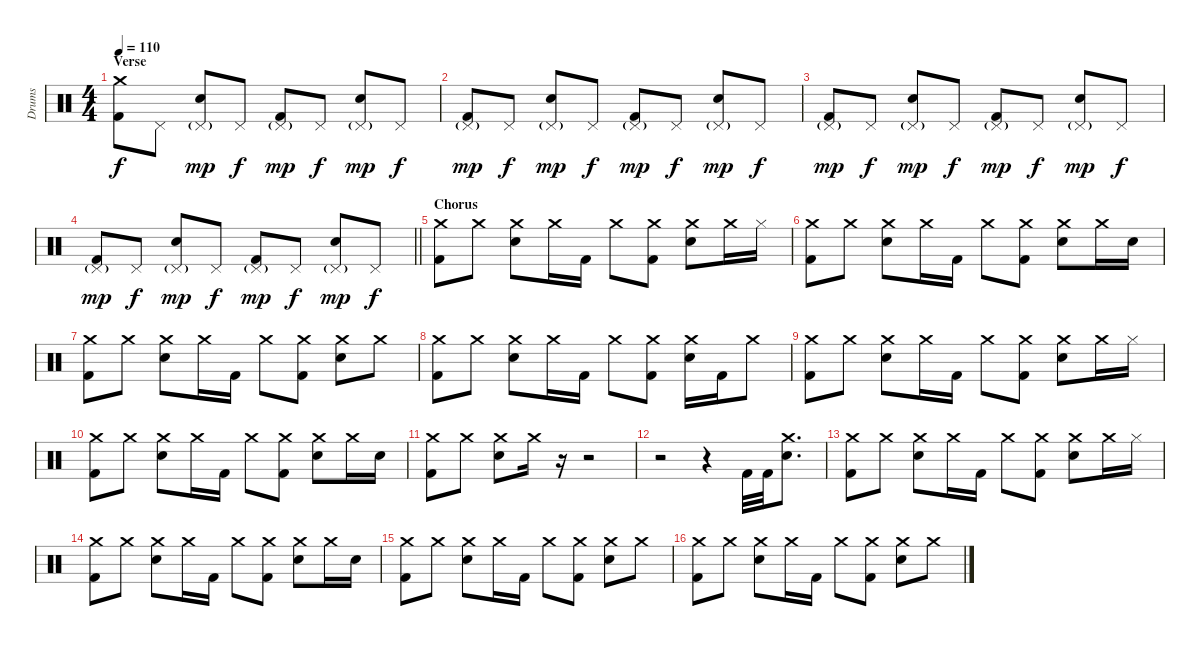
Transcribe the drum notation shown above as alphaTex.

\track ("Drums" "Drums") {instrument percussion}
\staff {score}
\articulation defaults
\ts (4 4)
\section ("" "Verse")
\tempo 110
\clef neutral
\ks c
("Crash medium (hit)" "Kick (hit) 2").8{dy f} "Pedal Hi-Hat (hit)".8 ("Pedal Hi-Hat (hit)"{g} "Electric Snare (hit)").8{dy mp} "Pedal Hi-Hat (hit)".8{dy f} ("Pedal Hi-Hat (hit)"{g} "Kick (hit) 2").8{dy mp} "Pedal Hi-Hat (hit)".8{dy f} ("Pedal Hi-Hat (hit)"{g} "Electric Snare (hit)").8{dy mp} "Pedal Hi-Hat (hit)".8{dy f} |
("Pedal Hi-Hat (hit)"{g} "Kick (hit) 2").8{dy mp} "Pedal Hi-Hat (hit)".8{dy f} ("Pedal Hi-Hat (hit)"{g} "Electric Snare (hit)").8{dy mp} "Pedal Hi-Hat (hit)".8{dy f} ("Pedal Hi-Hat (hit)"{g} "Kick (hit) 2").8{dy mp} "Pedal Hi-Hat (hit)".8{dy f} ("Pedal Hi-Hat (hit)"{g} "Electric Snare (hit)").8{dy mp} "Pedal Hi-Hat (hit)".8{dy f} |
("Pedal Hi-Hat (hit)"{g} "Kick (hit) 2").8{dy mp} "Pedal Hi-Hat (hit)".8{dy f} ("Pedal Hi-Hat (hit)"{g} "Electric Snare (hit)").8{dy mp} "Pedal Hi-Hat (hit)".8{dy f} ("Pedal Hi-Hat (hit)"{g} "Kick (hit) 2").8{dy mp} "Pedal Hi-Hat (hit)".8{dy f} ("Pedal Hi-Hat (hit)"{g} "Electric Snare (hit)").8{dy mp} "Pedal Hi-Hat (hit)".8{dy f} |
\barLineRight lightlight
("Pedal Hi-Hat (hit)"{g} "Kick (hit) 2").8{dy mp} "Pedal Hi-Hat (hit)".8{dy f} ("Pedal Hi-Hat (hit)"{g} "Electric Snare (hit)").8{dy mp} "Pedal Hi-Hat (hit)".8{dy f} ("Pedal Hi-Hat (hit)"{g} "Kick (hit) 2").8{dy mp} "Pedal Hi-Hat (hit)".8{dy f} ("Pedal Hi-Hat (hit)"{g} "Electric Snare (hit)").8{dy mp} "Pedal Hi-Hat (hit)".8{dy f} |
\section ("" "Chorus")
("Crash medium (hit)" "Kick (hit) 2").8 "Crash medium (hit)".8 ("Crash medium (hit)" "Electric Snare (hit)").8 "Crash medium (hit)".16 "Kick (hit) 2".16 "Crash medium (hit)".8 ("Crash medium (hit)" "Kick (hit) 2").8 ("Crash medium (hit)" "Electric Snare (hit)").8 "Crash medium (hit)".16 "Hi-Hat (closed)".16 |
("Crash medium (hit)" "Kick (hit) 2").8 "Crash medium (hit)".8 ("Crash medium (hit)" "Electric Snare (hit)").8 "Crash medium (hit)".16 "Kick (hit) 2".16 "Crash medium (hit)".8 ("Crash medium (hit)" "Kick (hit) 2").8 ("Crash medium (hit)" "Electric Snare (hit)").8 "Crash medium (hit)".16 "Electric Snare (hit)".16 |
("Crash medium (hit)" "Kick (hit) 2").8 "Crash medium (hit)".8 ("Crash medium (hit)" "Electric Snare (hit)").8 "Crash medium (hit)".16 "Kick (hit) 2".16 "Crash medium (hit)".8 ("Crash medium (hit)" "Kick (hit) 2").8 ("Crash medium (hit)" "Electric Snare (hit)").8 "Crash medium (hit)".8 |
("Crash medium (hit)" "Kick (hit) 2").8 "Crash medium (hit)".8 ("Crash medium (hit)" "Electric Snare (hit)").8 "Crash medium (hit)".16 "Kick (hit) 2".16 "Crash medium (hit)".8 ("Crash medium (hit)" "Kick (hit) 2").8 ("Crash medium (hit)" "Electric Snare (hit)").16 "Kick (hit) 2".16 "Crash medium (hit)".8 |
("Crash medium (hit)" "Kick (hit) 2").8 "Crash medium (hit)".8 ("Crash medium (hit)" "Electric Snare (hit)").8 "Crash medium (hit)".16 "Kick (hit) 2".16 "Crash medium (hit)".8 ("Crash medium (hit)" "Kick (hit) 2").8 ("Crash medium (hit)" "Electric Snare (hit)").8 "Crash medium (hit)".16 "Hi-Hat (closed)".16 |
("Crash medium (hit)" "Kick (hit) 2").8 "Crash medium (hit)".8 ("Crash medium (hit)" "Electric Snare (hit)").8 "Crash medium (hit)".16 "Kick (hit) 2".16 "Crash medium (hit)".8 ("Crash medium (hit)" "Kick (hit) 2").8 ("Crash medium (hit)" "Electric Snare (hit)").8 "Crash medium (hit)".16 "Electric Snare (hit)".16 |
("Crash medium (hit)" "Kick (hit) 2").8 "Crash medium (hit)".8 ("Crash medium (hit)" "Electric Snare (hit)").8 "Crash medium (hit)".16 r.16 r.2 |
r.2 r.4 "Kick (hit) 2".32 "Kick (hit) 2".32 ("Crash medium (hit)" "Electric Snare (hit)").8{d} |
("Crash medium (hit)" "Kick (hit) 2").8 "Crash medium (hit)".8 ("Crash medium (hit)" "Electric Snare (hit)").8 "Crash medium (hit)".16 "Kick (hit) 2".16 "Crash medium (hit)".8 ("Crash medium (hit)" "Kick (hit) 2").8 ("Crash medium (hit)" "Electric Snare (hit)").8 "Crash medium (hit)".16 "Hi-Hat (closed)".16 |
("Crash medium (hit)" "Kick (hit) 2").8 "Crash medium (hit)".8 ("Crash medium (hit)" "Electric Snare (hit)").8 "Crash medium (hit)".16 "Kick (hit) 2".16 "Crash medium (hit)".8 ("Crash medium (hit)" "Kick (hit) 2").8 ("Crash medium (hit)" "Electric Snare (hit)").8 "Crash medium (hit)".16 "Electric Snare (hit)".16 |
("Crash medium (hit)" "Kick (hit) 2").8 "Crash medium (hit)".8 ("Crash medium (hit)" "Electric Snare (hit)").8 "Crash medium (hit)".16 "Kick (hit) 2".16 "Crash medium (hit)".8 ("Crash medium (hit)" "Kick (hit) 2").8 ("Crash medium (hit)" "Electric Snare (hit)").8 "Crash medium (hit)".8 |
("Crash medium (hit)" "Kick (hit) 2").8 "Crash medium (hit)".8 ("Crash medium (hit)" "Electric Snare (hit)").8 "Crash medium (hit)".16 "Kick (hit) 2".16 "Crash medium (hit)".8 ("Crash medium (hit)" "Kick (hit) 2").8 ("Crash medium (hit)" "Electric Snare (hit)").8 "Crash medium (hit)".8
